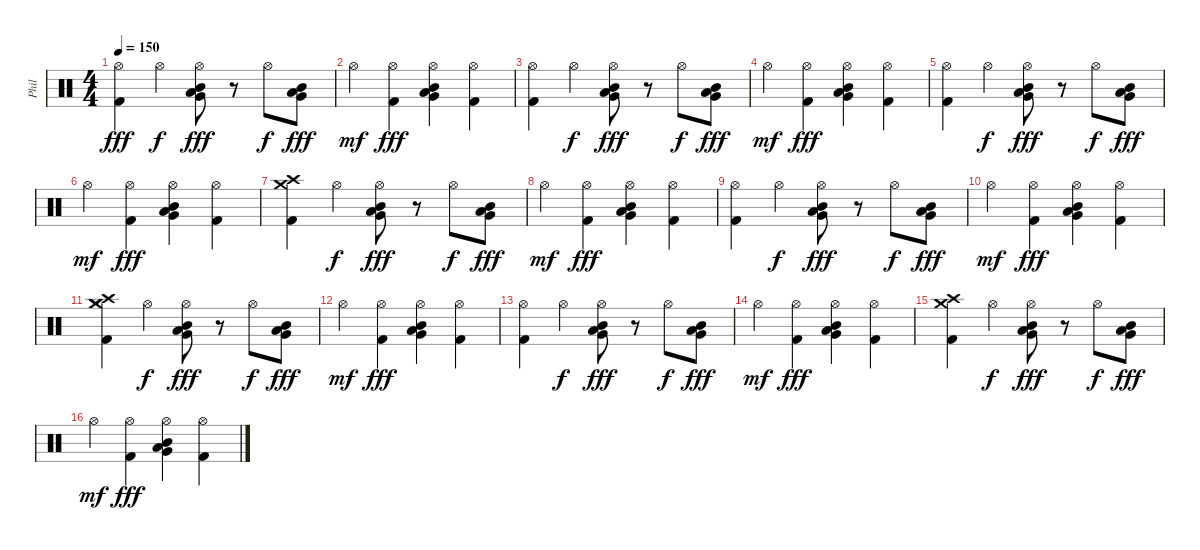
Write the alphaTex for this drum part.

\track ("Phil" "Phil") {instrument percussion}
\staff {score}
\articulation defaults
\ts (4 4)
\tempo 150
\clef neutral
\ks c
("Hi-Hat (open)" "Kick (hit) 2").4{dy fff} "Hi-Hat (open)".4{dy f} ("Hi-Hat (open)" "Mid Tom (hit)" "Low Floor Tom (hit)" "Very Low Tom (hit)").8{dy fff} r.8 "Hi-Hat (open)".8{dy f} ("Very Low Tom (hit)" "Mid Tom (hit)" "Low Floor Tom (hit)").8{dy fff} |
"Hi-Hat (open)".4{dy mf} ("Hi-Hat (open)" "Kick (hit) 2").4{dy fff} ("Hi-Hat (open)" "Mid Tom (hit)" "Very Low Tom (hit)" "Low Floor Tom (hit)").4 ("Hi-Hat (open)" "Kick (hit) 2").4 |
("Hi-Hat (open)" "Kick (hit) 2").4 "Hi-Hat (open)".4{dy f} ("Hi-Hat (open)" "Mid Tom (hit)" "Low Floor Tom (hit)" "Very Low Tom (hit)").8{dy fff} r.8 "Hi-Hat (open)".8{dy f} ("Very Low Tom (hit)" "Mid Tom (hit)" "Low Floor Tom (hit)").8{dy fff} |
"Hi-Hat (open)".4{dy mf} ("Hi-Hat (open)" "Kick (hit) 2").4{dy fff} ("Hi-Hat (open)" "Mid Tom (hit)" "Very Low Tom (hit)" "Low Floor Tom (hit)").4 ("Hi-Hat (open)" "Kick (hit) 2").4 |
("Hi-Hat (open)" "Kick (hit) 2").4 "Hi-Hat (open)".4{dy f} ("Hi-Hat (open)" "Mid Tom (hit)" "Low Floor Tom (hit)" "Very Low Tom (hit)").8{dy fff} r.8 "Hi-Hat (open)".8{dy f} ("Very Low Tom (hit)" "Mid Tom (hit)" "Low Floor Tom (hit)").8{dy fff} |
"Hi-Hat (open)".4{dy mf} ("Hi-Hat (open)" "Kick (hit) 2").4{dy fff} ("Hi-Hat (open)" "Mid Tom (hit)" "Very Low Tom (hit)" "Low Floor Tom (hit)").4 ("Hi-Hat (open)" "Kick (hit) 2").4 |
("Crash high (hit)" "Crash medium (hit)" "Kick (hit) 2").4 "Hi-Hat (open)".4{dy f} ("Hi-Hat (open)" "Mid Tom (hit)" "Low Floor Tom (hit)" "Very Low Tom (hit)").8{dy fff} r.8 "Hi-Hat (open)".8{dy f} ("Very Low Tom (hit)" "Mid Tom (hit)" "Low Floor Tom (hit)").8{dy fff} |
"Hi-Hat (open)".4{dy mf} ("Hi-Hat (open)" "Kick (hit) 2").4{dy fff} ("Hi-Hat (open)" "Mid Tom (hit)" "Very Low Tom (hit)" "Low Floor Tom (hit)").4 ("Hi-Hat (open)" "Kick (hit) 2").4 |
("Hi-Hat (open)" "Kick (hit) 2").4 "Hi-Hat (open)".4{dy f} ("Hi-Hat (open)" "Mid Tom (hit)" "Low Floor Tom (hit)" "Very Low Tom (hit)").8{dy fff} r.8 "Hi-Hat (open)".8{dy f} ("Very Low Tom (hit)" "Mid Tom (hit)" "Low Floor Tom (hit)").8{dy fff} |
"Hi-Hat (open)".4{dy mf} ("Hi-Hat (open)" "Kick (hit) 2").4{dy fff} ("Hi-Hat (open)" "Mid Tom (hit)" "Very Low Tom (hit)" "Low Floor Tom (hit)").4 ("Hi-Hat (open)" "Kick (hit) 2").4 |
("Crash high (hit)" "Crash medium (hit)" "Crash medium (hit)" "Kick (hit) 2").4 "Hi-Hat (open)".4{dy f} ("Hi-Hat (open)" "Mid Tom (hit)" "Low Floor Tom (hit)" "Very Low Tom (hit)").8{dy fff} r.8 "Hi-Hat (open)".8{dy f} ("Very Low Tom (hit)" "Mid Tom (hit)" "Low Floor Tom (hit)").8{dy fff} |
"Hi-Hat (open)".4{dy mf} ("Hi-Hat (open)" "Kick (hit) 2").4{dy fff} ("Hi-Hat (open)" "Mid Tom (hit)" "Very Low Tom (hit)" "Low Floor Tom (hit)").4 ("Hi-Hat (open)" "Kick (hit) 2").4 |
("Hi-Hat (open)" "Kick (hit) 2").4 "Hi-Hat (open)".4{dy f} ("Hi-Hat (open)" "Mid Tom (hit)" "Low Floor Tom (hit)" "Very Low Tom (hit)").8{dy fff} r.8 "Hi-Hat (open)".8{dy f} ("Very Low Tom (hit)" "Mid Tom (hit)" "Low Floor Tom (hit)").8{dy fff} |
"Hi-Hat (open)".4{dy mf} ("Hi-Hat (open)" "Kick (hit) 2").4{dy fff} ("Hi-Hat (open)" "Mid Tom (hit)" "Very Low Tom (hit)" "Low Floor Tom (hit)").4 ("Hi-Hat (open)" "Kick (hit) 2").4 |
("Crash high (hit)" "Crash medium (hit)" "Kick (hit) 2").4 "Hi-Hat (open)".4{dy f} ("Hi-Hat (open)" "Mid Tom (hit)" "Low Floor Tom (hit)" "Very Low Tom (hit)").8{dy fff} r.8 "Hi-Hat (open)".8{dy f} ("Very Low Tom (hit)" "Mid Tom (hit)" "Low Floor Tom (hit)").8{dy fff} |
"Hi-Hat (open)".4{dy mf} ("Hi-Hat (open)" "Kick (hit) 2").4{dy fff} ("Hi-Hat (open)" "Mid Tom (hit)" "Very Low Tom (hit)" "Low Floor Tom (hit)").4 ("Hi-Hat (open)" "Kick (hit) 2").4
